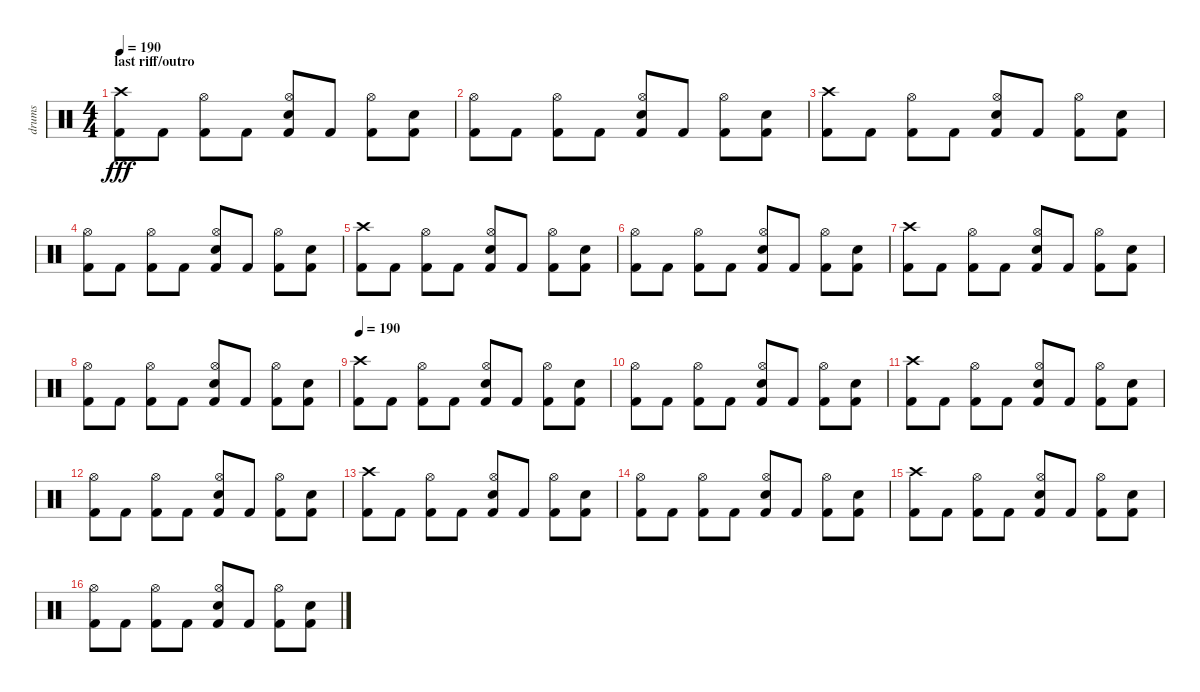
\track ("drums" "drums") {instrument percussion}
\staff {score}
\articulation defaults
\ts (4 4)
\section ("" "last riff/outro")
\tempo 190
\clef neutral
\ks c
("Crash high (hit)" "Kick (hit) 2").8{dy fff} "Kick (hit) 2".8 ("Hi-Hat (open)" "Kick (hit) 2").8 "Kick (hit) 2".8 ("Hi-Hat (open)" "Snare (hit) 2" "Kick (hit) 2").8 "Kick (hit) 2".8 ("Hi-Hat (open)" "Kick (hit) 2").8 ("Snare (hit) 2" "Kick (hit) 2").8 |
("Hi-Hat (open)" "Kick (hit) 2").8 "Kick (hit) 2".8 ("Hi-Hat (open)" "Kick (hit) 2").8 "Kick (hit) 2".8 ("Hi-Hat (open)" "Snare (hit) 2" "Kick (hit) 2").8 "Kick (hit) 2".8 ("Hi-Hat (open)" "Kick (hit) 2").8 ("Snare (hit) 2" "Kick (hit) 2").8 |
("Crash high (hit)" "Kick (hit) 2").8 "Kick (hit) 2".8 ("Hi-Hat (open)" "Kick (hit) 2").8 "Kick (hit) 2".8 ("Hi-Hat (open)" "Snare (hit) 2" "Kick (hit) 2").8 "Kick (hit) 2".8 ("Hi-Hat (open)" "Kick (hit) 2").8 ("Snare (hit) 2" "Kick (hit) 2").8 |
("Hi-Hat (open)" "Kick (hit) 2").8 "Kick (hit) 2".8 ("Hi-Hat (open)" "Kick (hit) 2").8 "Kick (hit) 2".8 ("Hi-Hat (open)" "Snare (hit) 2" "Kick (hit) 2").8 "Kick (hit) 2".8 ("Hi-Hat (open)" "Kick (hit) 2").8 ("Snare (hit) 2" "Kick (hit) 2").8 |
("Crash high (hit)" "Kick (hit) 2").8 "Kick (hit) 2".8 ("Hi-Hat (open)" "Kick (hit) 2").8 "Kick (hit) 2".8 ("Hi-Hat (open)" "Snare (hit) 2" "Kick (hit) 2").8 "Kick (hit) 2".8 ("Hi-Hat (open)" "Kick (hit) 2").8 ("Snare (hit) 2" "Kick (hit) 2").8 |
("Hi-Hat (open)" "Kick (hit) 2").8 "Kick (hit) 2".8 ("Hi-Hat (open)" "Kick (hit) 2").8 "Kick (hit) 2".8 ("Hi-Hat (open)" "Snare (hit) 2" "Kick (hit) 2").8 "Kick (hit) 2".8 ("Hi-Hat (open)" "Kick (hit) 2").8 ("Snare (hit) 2" "Kick (hit) 2").8 |
("Crash high (hit)" "Kick (hit) 2").8 "Kick (hit) 2".8 ("Hi-Hat (open)" "Kick (hit) 2").8 "Kick (hit) 2".8 ("Hi-Hat (open)" "Snare (hit) 2" "Kick (hit) 2").8 "Kick (hit) 2".8 ("Hi-Hat (open)" "Kick (hit) 2").8 ("Snare (hit) 2" "Kick (hit) 2").8 |
("Hi-Hat (open)" "Kick (hit) 2").8 "Kick (hit) 2".8 ("Hi-Hat (open)" "Kick (hit) 2").8 "Kick (hit) 2".8 ("Hi-Hat (open)" "Snare (hit) 2" "Kick (hit) 2").8 "Kick (hit) 2".8 ("Hi-Hat (open)" "Kick (hit) 2").8 ("Snare (hit) 2" "Kick (hit) 2").8 |
\tempo 190
("Crash high (hit)" "Kick (hit) 2").8 "Kick (hit) 2".8 ("Hi-Hat (open)" "Kick (hit) 2").8 "Kick (hit) 2".8 ("Hi-Hat (open)" "Snare (hit) 2" "Kick (hit) 2").8 "Kick (hit) 2".8 ("Hi-Hat (open)" "Kick (hit) 2").8 ("Snare (hit) 2" "Kick (hit) 2").8 |
("Hi-Hat (open)" "Kick (hit) 2").8 "Kick (hit) 2".8 ("Hi-Hat (open)" "Kick (hit) 2").8 "Kick (hit) 2".8 ("Hi-Hat (open)" "Snare (hit) 2" "Kick (hit) 2").8 "Kick (hit) 2".8 ("Hi-Hat (open)" "Kick (hit) 2").8 ("Snare (hit) 2" "Kick (hit) 2").8 |
("Crash high (hit)" "Kick (hit) 2").8 "Kick (hit) 2".8 ("Hi-Hat (open)" "Kick (hit) 2").8 "Kick (hit) 2".8 ("Hi-Hat (open)" "Snare (hit) 2" "Kick (hit) 2").8 "Kick (hit) 2".8 ("Hi-Hat (open)" "Kick (hit) 2").8 ("Snare (hit) 2" "Kick (hit) 2").8 |
("Hi-Hat (open)" "Kick (hit) 2").8 "Kick (hit) 2".8 ("Hi-Hat (open)" "Kick (hit) 2").8 "Kick (hit) 2".8 ("Hi-Hat (open)" "Snare (hit) 2" "Kick (hit) 2").8 "Kick (hit) 2".8 ("Hi-Hat (open)" "Kick (hit) 2").8 ("Snare (hit) 2" "Kick (hit) 2").8 |
("Crash high (hit)" "Kick (hit) 2").8 "Kick (hit) 2".8 ("Hi-Hat (open)" "Kick (hit) 2").8 "Kick (hit) 2".8 ("Hi-Hat (open)" "Snare (hit) 2" "Kick (hit) 2").8 "Kick (hit) 2".8 ("Hi-Hat (open)" "Kick (hit) 2").8 ("Snare (hit) 2" "Kick (hit) 2").8 |
("Hi-Hat (open)" "Kick (hit) 2").8 "Kick (hit) 2".8 ("Hi-Hat (open)" "Kick (hit) 2").8 "Kick (hit) 2".8 ("Hi-Hat (open)" "Snare (hit) 2" "Kick (hit) 2").8 "Kick (hit) 2".8 ("Hi-Hat (open)" "Kick (hit) 2").8 ("Snare (hit) 2" "Kick (hit) 2").8 |
("Crash high (hit)" "Kick (hit) 2").8 "Kick (hit) 2".8 ("Hi-Hat (open)" "Kick (hit) 2").8 "Kick (hit) 2".8 ("Hi-Hat (open)" "Snare (hit) 2" "Kick (hit) 2").8 "Kick (hit) 2".8 ("Hi-Hat (open)" "Kick (hit) 2").8 ("Snare (hit) 2" "Kick (hit) 2").8 |
("Hi-Hat (open)" "Kick (hit) 2").8 "Kick (hit) 2".8 ("Hi-Hat (open)" "Kick (hit) 2").8 "Kick (hit) 2".8 ("Hi-Hat (open)" "Snare (hit) 2" "Kick (hit) 2").8 "Kick (hit) 2".8 ("Hi-Hat (open)" "Kick (hit) 2").8 ("Snare (hit) 2" "Kick (hit) 2").8
